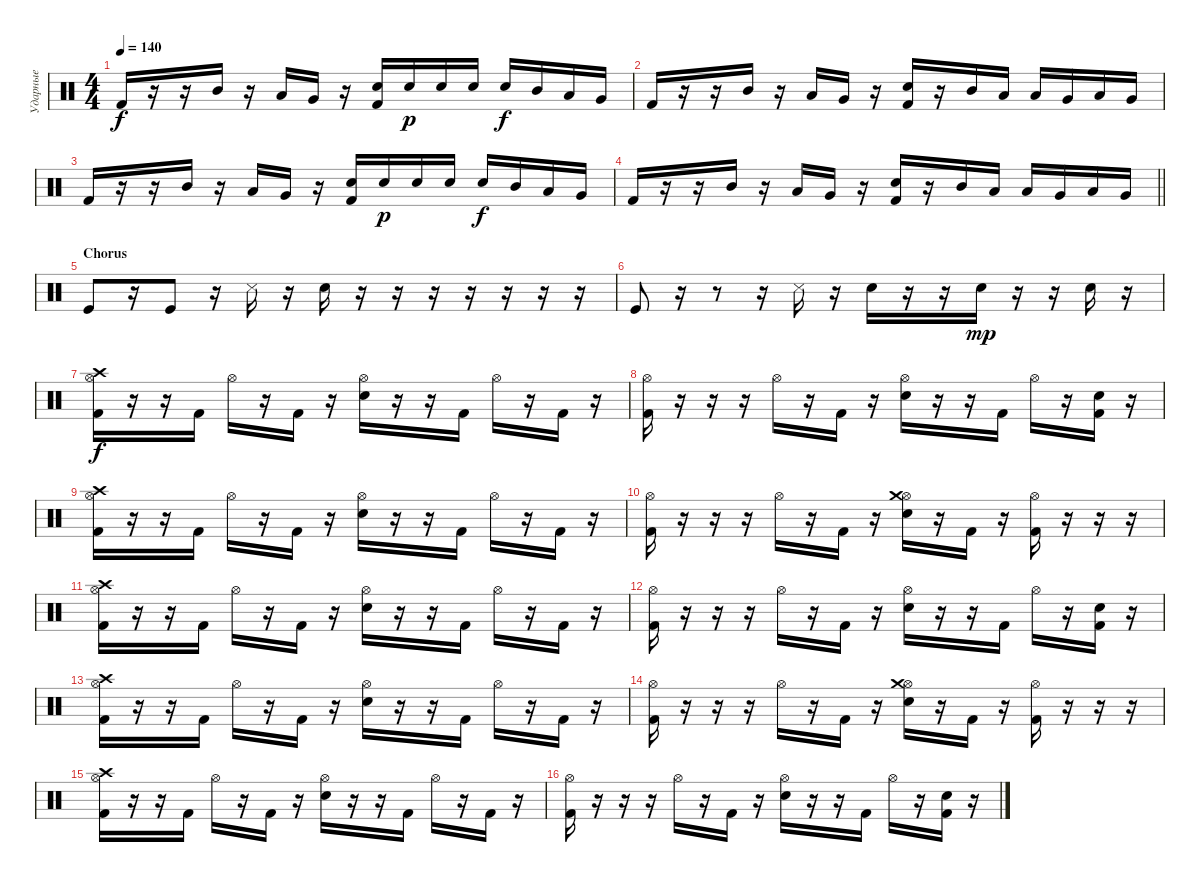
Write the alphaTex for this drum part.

\track ("Ударные" "Ударные") {instrument percussion}
\staff {score}
\articulation defaults
\ts (4 4)
\tempo 140
\clef neutral
\ks c "Kick (hit) 2".16{dy f}
r.16 r.16 "Mid Tom (hit)".16 r.16 "Low Tom (hit)".16 "Very Low Tom (hit)".16 r.16 ("Snare (hit) 2" "Kick (hit) 2").16 "Snare (hit) 2".16{dy p} "Snare (hit) 2".16 "Snare (hit) 2".16 "Snare (hit) 2".16{dy f} "Mid Tom (hit)".16 "Low Tom (hit)".16 "Very Low Tom (hit)".16 |
"Kick (hit) 2".16 r.16 r.16 "Mid Tom (hit)".16 r.16 "Low Tom (hit)".16 "Very Low Tom (hit)".16 r.16 ("Snare (hit) 2" "Kick (hit) 2").16 r.16 "Mid Tom (hit)".16 "Low Tom (hit)".16 "Low Tom (hit)".16 "Very Low Tom (hit)".16 "Low Floor Tom (hit)".16 "Very Low Tom (hit)".16 |
"Kick (hit) 2".16 r.16 r.16 "Mid Tom (hit)".16 r.16 "Low Tom (hit)".16 "Very Low Tom (hit)".16 r.16 ("Snare (hit) 2" "Kick (hit) 2").16 "Snare (hit) 2".16{dy p} "Snare (hit) 2".16 "Snare (hit) 2".16 "Snare (hit) 2".16{dy f} "Mid Tom (hit)".16 "Low Tom (hit)".16 "Very Low Tom (hit)".16 |
\barLineRight lightlight "Kick (hit) 2".16
r.16 r.16 "Mid Tom (hit)".16 r.16 "Low Tom (hit)".16 "Very Low Tom (hit)".16 r.16 ("Snare (hit) 2" "Kick (hit) 2").16 r.16 "Mid Tom (hit)".16 "Low Tom (hit)".16 "Low Tom (hit)".16 "Very Low Tom (hit)".16 "Low Floor Tom (hit)".16 "Very Low Tom (hit)".16 |
\section ("" "Chorus")
"Kick (hit)".8 r.16 "Kick (hit)".8 r.16 "Metronome (hit)".16 r.16 "Electric Snare (hit)".16 r.16 r.16 r.16 r.16 r.16 r.16 r.16 |
"Kick (hit)".8 r.16 r.8 r.16 "Metronome (hit)".16 r.16 "Electric Snare (hit)".16 r.16 r.16 "Electric Snare (hit)".16{dy mp} r.16 r.16 "Electric Snare (hit)".16 r.16 |
("Hi-Hat (open)" "Crash high (hit)" "Kick (hit) 2").16{dy f} r.16 r.16 "Kick (hit) 2".16 "Hi-Hat (open)".16 r.16 "Kick (hit) 2".16 r.16 ("Hi-Hat (open)" "Snare (hit) 2").16 r.16 r.16 "Kick (hit) 2".16 "Hi-Hat (open)".16 r.16 "Kick (hit) 2".16 r.16 |
("Hi-Hat (open)" "Kick (hit) 2").16 r.16 r.16 r.16 "Hi-Hat (open)".16 r.16 "Kick (hit) 2".16 r.16 ("Hi-Hat (open)" "Snare (hit) 2").16 r.16 r.16 "Kick (hit) 2".16 "Hi-Hat (open)".16 r.16 ("Snare (hit) 2" "Kick (hit) 2").16 r.16 |
("Hi-Hat (open)" "Crash high (hit)" "Kick (hit) 2").16 r.16 r.16 "Kick (hit) 2".16 "Hi-Hat (open)".16 r.16 "Kick (hit) 2".16 r.16 ("Hi-Hat (open)" "Snare (hit) 2").16 r.16 r.16 "Kick (hit) 2".16 "Hi-Hat (open)".16 r.16 "Kick (hit) 2".16 r.16 |
("Hi-Hat (open)" "Kick (hit) 2").16 r.16 r.16 r.16 "Hi-Hat (open)".16 r.16 "Kick (hit) 2".16 r.16 ("Hi-Hat (open)" "Crash medium (hit)" "Snare (hit) 2").16 r.16 "Kick (hit) 2".16 r.16 ("Hi-Hat (open)" "Kick (hit) 2").16 r.16 r.16 r.16 |
("Hi-Hat (open)" "Crash high (hit)" "Kick (hit) 2").16 r.16 r.16 "Kick (hit) 2".16 "Hi-Hat (open)".16 r.16 "Kick (hit) 2".16 r.16 ("Hi-Hat (open)" "Snare (hit) 2").16 r.16 r.16 "Kick (hit) 2".16 "Hi-Hat (open)".16 r.16 "Kick (hit) 2".16 r.16 |
("Hi-Hat (open)" "Kick (hit) 2").16 r.16 r.16 r.16 "Hi-Hat (open)".16 r.16 "Kick (hit) 2".16 r.16 ("Hi-Hat (open)" "Snare (hit) 2").16 r.16 r.16 "Kick (hit) 2".16 "Hi-Hat (open)".16 r.16 ("Snare (hit) 2" "Kick (hit) 2").16 r.16 |
("Hi-Hat (open)" "Crash high (hit)" "Kick (hit) 2").16 r.16 r.16 "Kick (hit) 2".16 "Hi-Hat (open)".16 r.16 "Kick (hit) 2".16 r.16 ("Hi-Hat (open)" "Snare (hit) 2").16 r.16 r.16 "Kick (hit) 2".16 "Hi-Hat (open)".16 r.16 "Kick (hit) 2".16 r.16 |
("Hi-Hat (open)" "Kick (hit) 2").16 r.16 r.16 r.16 "Hi-Hat (open)".16 r.16 "Kick (hit) 2".16 r.16 ("Hi-Hat (open)" "Crash medium (hit)" "Snare (hit) 2").16 r.16 "Kick (hit) 2".16 r.16 ("Hi-Hat (open)" "Kick (hit) 2").16 r.16 r.16 r.16 |
("Hi-Hat (open)" "Crash high (hit)" "Kick (hit) 2").16 r.16 r.16 "Kick (hit) 2".16 "Hi-Hat (open)".16 r.16 "Kick (hit) 2".16 r.16 ("Hi-Hat (open)" "Snare (hit) 2").16 r.16 r.16 "Kick (hit) 2".16 "Hi-Hat (open)".16 r.16 "Kick (hit) 2".16 r.16 |
("Hi-Hat (open)" "Kick (hit) 2").16 r.16 r.16 r.16 "Hi-Hat (open)".16 r.16 "Kick (hit) 2".16 r.16 ("Hi-Hat (open)" "Snare (hit) 2").16 r.16 r.16 "Kick (hit) 2".16 "Hi-Hat (open)".16 r.16 ("Snare (hit) 2" "Kick (hit) 2").16 r.16
